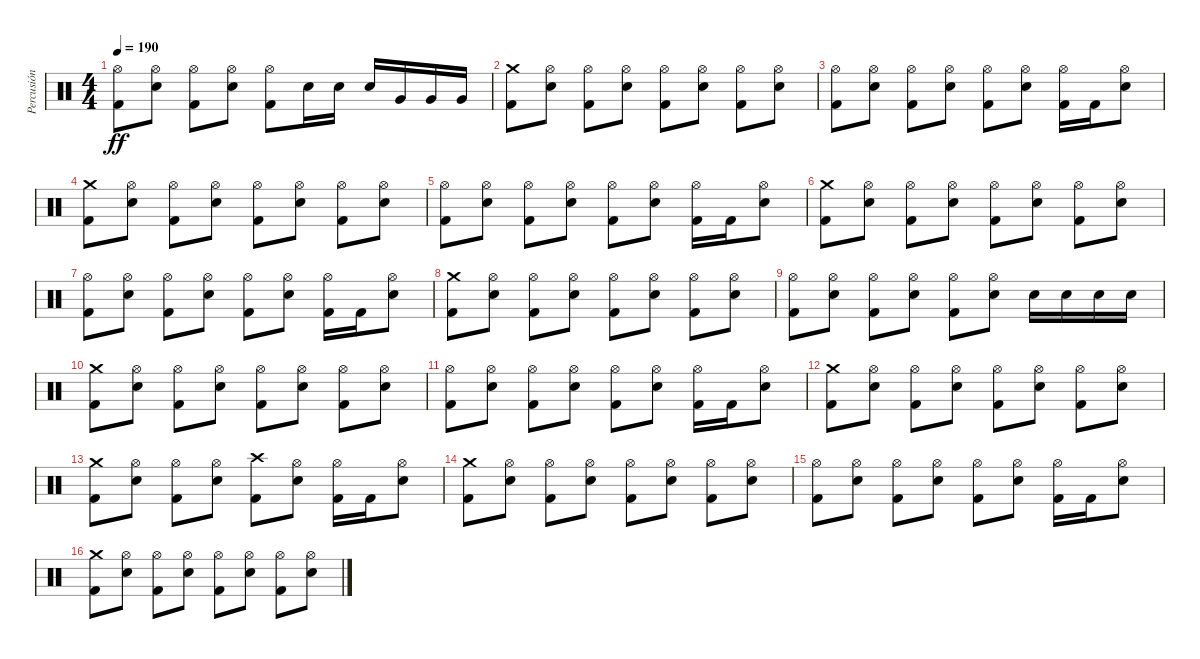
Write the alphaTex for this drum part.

\track ("Percusión" "Percusión") {instrument percussion}
\staff {score}
\articulation defaults
\ts (4 4)
\tempo 190
\clef neutral
\ks c
("Hi-Hat (open)" "Kick (hit) 2").8{dy ff} ("Hi-Hat (open)" "Snare (hit) 2").8 ("Hi-Hat (open)" "Kick (hit) 2").8 ("Hi-Hat (open)" "Snare (hit) 2").8 ("Hi-Hat (open)" "Kick (hit) 2").8 "Snare (hit) 2".16 "Snare (hit) 2".16 "Snare (hit) 2".16 "Very Low Tom (hit)".16 "Very Low Tom (hit)".16 "Very Low Tom (hit)".16 |
("Crash medium (hit)" "Kick (hit) 2").8 ("Hi-Hat (open)" "Snare (hit) 2").8 ("Hi-Hat (open)" "Kick (hit) 2").8 ("Hi-Hat (open)" "Snare (hit) 2").8 ("Hi-Hat (open)" "Kick (hit) 2").8 ("Hi-Hat (open)" "Snare (hit) 2").8 ("Hi-Hat (open)" "Kick (hit) 2").8 ("Hi-Hat (open)" "Snare (hit) 2").8 |
("Hi-Hat (open)" "Kick (hit) 2").8 ("Hi-Hat (open)" "Snare (hit) 2").8 ("Hi-Hat (open)" "Kick (hit) 2").8 ("Hi-Hat (open)" "Snare (hit) 2").8 ("Hi-Hat (open)" "Kick (hit) 2").8 ("Hi-Hat (open)" "Snare (hit) 2").8 ("Hi-Hat (open)" "Kick (hit) 2").16 "Kick (hit) 2".16 ("Hi-Hat (open)" "Snare (hit) 2").8 |
("Crash medium (hit)" "Kick (hit) 2").8 ("Hi-Hat (open)" "Snare (hit) 2").8 ("Hi-Hat (open)" "Kick (hit) 2").8 ("Hi-Hat (open)" "Snare (hit) 2").8 ("Hi-Hat (open)" "Kick (hit) 2").8 ("Hi-Hat (open)" "Snare (hit) 2").8 ("Hi-Hat (open)" "Kick (hit) 2").8 ("Hi-Hat (open)" "Snare (hit) 2").8 |
("Hi-Hat (open)" "Kick (hit) 2").8 ("Hi-Hat (open)" "Snare (hit) 2").8 ("Hi-Hat (open)" "Kick (hit) 2").8 ("Hi-Hat (open)" "Snare (hit) 2").8 ("Hi-Hat (open)" "Kick (hit) 2").8 ("Hi-Hat (open)" "Snare (hit) 2").8 ("Hi-Hat (open)" "Kick (hit) 2").16 "Kick (hit) 2".16 ("Hi-Hat (open)" "Snare (hit) 2").8 |
("Crash medium (hit)" "Kick (hit) 2").8 ("Hi-Hat (open)" "Snare (hit) 2").8 ("Hi-Hat (open)" "Kick (hit) 2").8 ("Hi-Hat (open)" "Snare (hit) 2").8 ("Hi-Hat (open)" "Kick (hit) 2").8 ("Hi-Hat (open)" "Snare (hit) 2").8 ("Hi-Hat (open)" "Kick (hit) 2").8 ("Hi-Hat (open)" "Snare (hit) 2").8 |
("Hi-Hat (open)" "Kick (hit) 2").8 ("Hi-Hat (open)" "Snare (hit) 2").8 ("Hi-Hat (open)" "Kick (hit) 2").8 ("Hi-Hat (open)" "Snare (hit) 2").8 ("Hi-Hat (open)" "Kick (hit) 2").8 ("Hi-Hat (open)" "Snare (hit) 2").8 ("Hi-Hat (open)" "Kick (hit) 2").16 "Kick (hit) 2".16 ("Hi-Hat (open)" "Snare (hit) 2").8 |
("Crash medium (hit)" "Kick (hit) 2").8 ("Hi-Hat (open)" "Snare (hit) 2").8 ("Hi-Hat (open)" "Kick (hit) 2").8 ("Hi-Hat (open)" "Snare (hit) 2").8 ("Hi-Hat (open)" "Kick (hit) 2").8 ("Hi-Hat (open)" "Snare (hit) 2").8 ("Hi-Hat (open)" "Kick (hit) 2").8 ("Hi-Hat (open)" "Snare (hit) 2").8 |
("Hi-Hat (open)" "Kick (hit) 2").8 ("Hi-Hat (open)" "Snare (hit) 2").8 ("Hi-Hat (open)" "Kick (hit) 2").8 ("Hi-Hat (open)" "Snare (hit) 2").8 ("Hi-Hat (open)" "Kick (hit) 2").8 ("Hi-Hat (open)" "Snare (hit) 2").8 "Snare (hit) 2".16 "Snare (hit) 2".16 "Snare (hit) 2".16 "Snare (hit) 2".16 |
("Crash medium (hit)" "Kick (hit) 2").8 ("Hi-Hat (open)" "Snare (hit) 2").8 ("Hi-Hat (open)" "Kick (hit) 2").8 ("Hi-Hat (open)" "Snare (hit) 2").8 ("Hi-Hat (open)" "Kick (hit) 2").8 ("Hi-Hat (open)" "Snare (hit) 2").8 ("Hi-Hat (open)" "Kick (hit) 2").8 ("Hi-Hat (open)" "Snare (hit) 2").8 |
("Hi-Hat (open)" "Kick (hit) 2").8 ("Hi-Hat (open)" "Snare (hit) 2").8 ("Hi-Hat (open)" "Kick (hit) 2").8 ("Hi-Hat (open)" "Snare (hit) 2").8 ("Hi-Hat (open)" "Kick (hit) 2").8 ("Hi-Hat (open)" "Snare (hit) 2").8 ("Hi-Hat (open)" "Kick (hit) 2").16 "Kick (hit) 2".16 ("Hi-Hat (open)" "Snare (hit) 2").8 |
("Crash medium (hit)" "Kick (hit) 2").8 ("Hi-Hat (open)" "Snare (hit) 2").8 ("Hi-Hat (open)" "Kick (hit) 2").8 ("Hi-Hat (open)" "Snare (hit) 2").8 ("Hi-Hat (open)" "Kick (hit) 2").8 ("Hi-Hat (open)" "Snare (hit) 2").8 ("Hi-Hat (open)" "Kick (hit) 2").8 ("Hi-Hat (open)" "Snare (hit) 2").8 |
("Crash medium (hit)" "Kick (hit) 2").8 ("Hi-Hat (open)" "Snare (hit) 2").8 ("Hi-Hat (open)" "Kick (hit) 2").8 ("Hi-Hat (open)" "Snare (hit) 2").8 ("Crash high (hit)" "Kick (hit) 2").8 ("Hi-Hat (open)" "Snare (hit) 2").8 ("Hi-Hat (open)" "Kick (hit) 2").16 "Kick (hit) 2".16 ("Hi-Hat (open)" "Snare (hit) 2").8 |
("Crash medium (hit)" "Kick (hit) 2").8 ("Hi-Hat (open)" "Snare (hit) 2").8 ("Hi-Hat (open)" "Kick (hit) 2").8 ("Hi-Hat (open)" "Snare (hit) 2").8 ("Hi-Hat (open)" "Kick (hit) 2").8 ("Hi-Hat (open)" "Snare (hit) 2").8 ("Hi-Hat (open)" "Kick (hit) 2").8 ("Hi-Hat (open)" "Snare (hit) 2").8 |
("Hi-Hat (open)" "Kick (hit) 2").8 ("Hi-Hat (open)" "Snare (hit) 2").8 ("Hi-Hat (open)" "Kick (hit) 2").8 ("Hi-Hat (open)" "Snare (hit) 2").8 ("Hi-Hat (open)" "Kick (hit) 2").8 ("Hi-Hat (open)" "Snare (hit) 2").8 ("Hi-Hat (open)" "Kick (hit) 2").16 "Kick (hit) 2".16 ("Hi-Hat (open)" "Snare (hit) 2").8 |
("Crash medium (hit)" "Kick (hit) 2").8 ("Hi-Hat (open)" "Snare (hit) 2").8 ("Hi-Hat (open)" "Kick (hit) 2").8 ("Hi-Hat (open)" "Snare (hit) 2").8 ("Hi-Hat (open)" "Kick (hit) 2").8 ("Hi-Hat (open)" "Snare (hit) 2").8 ("Hi-Hat (open)" "Kick (hit) 2").8 ("Hi-Hat (open)" "Snare (hit) 2").8
